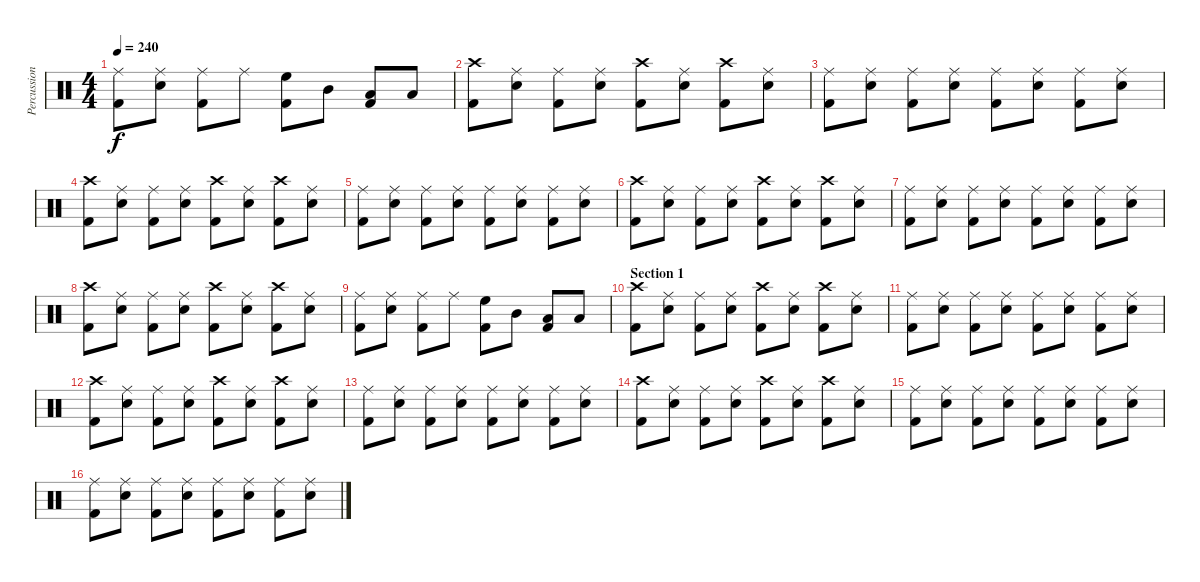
\track ("Percussion" "Percussion") {instrument percussion}
\staff {score}
\articulation defaults
\ts (4 4)
\tempo 240
\clef neutral
\ks c
("Kick (hit) 2" "Ride (middle)").8{dy f} ("Snare (hit) 2" "Ride (middle)").8 ("Kick (hit) 2" "Ride (middle)").8 "Ride (middle)".8 ("Kick (hit) 2" "High Floor Tom (hit)").8 "Mid Tom (hit)".8 ("Kick (hit) 2" "Low Tom (hit)").8 "Low Floor Tom (hit)".8 |
("Kick (hit) 2" "Crash high (hit)").8 ("Snare (hit) 2" "Ride (middle)").8 ("Kick (hit) 2" "Ride (middle)").8 ("Snare (hit) 2" "Ride (middle)").8 ("Kick (hit) 2" "Crash high (hit)").8 ("Snare (hit) 2" "Ride (middle)").8 ("Kick (hit) 2" "Crash high (hit)").8 ("Snare (hit) 2" "Ride (middle)").8 |
("Kick (hit) 2" "Ride (middle)").8 ("Snare (hit) 2" "Ride (middle)").8 ("Kick (hit) 2" "Ride (middle)").8 ("Snare (hit) 2" "Ride (middle)").8 ("Kick (hit) 2" "Ride (middle)").8 ("Snare (hit) 2" "Ride (middle)").8 ("Kick (hit) 2" "Ride (middle)").8 ("Snare (hit) 2" "Ride (middle)").8 |
("Kick (hit) 2" "Crash high (hit)").8 ("Snare (hit) 2" "Ride (middle)").8 ("Kick (hit) 2" "Ride (middle)").8 ("Snare (hit) 2" "Ride (middle)").8 ("Kick (hit) 2" "Crash high (hit)").8 ("Snare (hit) 2" "Ride (middle)").8 ("Kick (hit) 2" "Crash high (hit)").8 ("Snare (hit) 2" "Ride (middle)").8 |
("Kick (hit) 2" "Ride (middle)").8 ("Snare (hit) 2" "Ride (middle)").8 ("Kick (hit) 2" "Ride (middle)").8 ("Snare (hit) 2" "Ride (middle)").8 ("Kick (hit) 2" "Ride (middle)").8 ("Snare (hit) 2" "Ride (middle)").8 ("Kick (hit) 2" "Ride (middle)").8 ("Snare (hit) 2" "Ride (middle)").8 |
("Kick (hit) 2" "Crash high (hit)").8 ("Snare (hit) 2" "Ride (middle)").8 ("Kick (hit) 2" "Ride (middle)").8 ("Snare (hit) 2" "Ride (middle)").8 ("Kick (hit) 2" "Crash high (hit)").8 ("Snare (hit) 2" "Ride (middle)").8 ("Kick (hit) 2" "Crash high (hit)").8 ("Snare (hit) 2" "Ride (middle)").8 |
("Kick (hit) 2" "Ride (middle)").8 ("Snare (hit) 2" "Ride (middle)").8 ("Kick (hit) 2" "Ride (middle)").8 ("Snare (hit) 2" "Ride (middle)").8 ("Kick (hit) 2" "Ride (middle)").8 ("Snare (hit) 2" "Ride (middle)").8 ("Kick (hit) 2" "Ride (middle)").8 ("Snare (hit) 2" "Ride (middle)").8 |
("Kick (hit) 2" "Crash high (hit)").8 ("Snare (hit) 2" "Ride (middle)").8 ("Kick (hit) 2" "Ride (middle)").8 ("Snare (hit) 2" "Ride (middle)").8 ("Kick (hit) 2" "Crash high (hit)").8 ("Snare (hit) 2" "Ride (middle)").8 ("Kick (hit) 2" "Crash high (hit)").8 ("Snare (hit) 2" "Ride (middle)").8 |
("Kick (hit) 2" "Ride (middle)").8 ("Snare (hit) 2" "Ride (middle)").8 ("Kick (hit) 2" "Ride (middle)").8 "Ride (middle)".8 ("Kick (hit) 2" "High Floor Tom (hit)").8 "Mid Tom (hit)".8 ("Kick (hit) 2" "Low Tom (hit)").8 "Low Floor Tom (hit)".8 |
\section ("" "Section 1")
("Kick (hit) 2" "Crash high (hit)").8 ("Snare (hit) 2" "Ride (middle)").8 ("Kick (hit) 2" "Ride (middle)").8 ("Snare (hit) 2" "Ride (middle)").8 ("Kick (hit) 2" "Crash high (hit)").8 ("Snare (hit) 2" "Ride (middle)").8 ("Kick (hit) 2" "Crash high (hit)").8 ("Snare (hit) 2" "Ride (middle)").8 |
("Kick (hit) 2" "Ride (middle)").8 ("Snare (hit) 2" "Ride (middle)").8 ("Kick (hit) 2" "Ride (middle)").8 ("Snare (hit) 2" "Ride (middle)").8 ("Kick (hit) 2" "Ride (middle)").8 ("Snare (hit) 2" "Ride (middle)").8 ("Kick (hit) 2" "Ride (middle)").8 ("Snare (hit) 2" "Ride (middle)").8 |
("Kick (hit) 2" "Crash high (hit)").8 ("Snare (hit) 2" "Ride (middle)").8 ("Kick (hit) 2" "Ride (middle)").8 ("Snare (hit) 2" "Ride (middle)").8 ("Kick (hit) 2" "Crash high (hit)").8 ("Snare (hit) 2" "Ride (middle)").8 ("Kick (hit) 2" "Crash high (hit)").8 ("Snare (hit) 2" "Ride (middle)").8 |
("Kick (hit) 2" "Ride (middle)").8 ("Snare (hit) 2" "Ride (middle)").8 ("Kick (hit) 2" "Ride (middle)").8 ("Snare (hit) 2" "Ride (middle)").8 ("Kick (hit) 2" "Ride (middle)").8 ("Snare (hit) 2" "Ride (middle)").8 ("Kick (hit) 2" "Ride (middle)").8 ("Snare (hit) 2" "Ride (middle)").8 |
("Kick (hit) 2" "Crash high (hit)").8 ("Snare (hit) 2" "Ride (middle)").8 ("Kick (hit) 2" "Ride (middle)").8 ("Snare (hit) 2" "Ride (middle)").8 ("Kick (hit) 2" "Crash high (hit)").8 ("Snare (hit) 2" "Ride (middle)").8 ("Kick (hit) 2" "Crash high (hit)").8 ("Snare (hit) 2" "Ride (middle)").8 |
("Kick (hit) 2" "Ride (middle)").8 ("Snare (hit) 2" "Ride (middle)").8 ("Kick (hit) 2" "Ride (middle)").8 ("Snare (hit) 2" "Ride (middle)").8 ("Kick (hit) 2" "Ride (middle)").8 ("Snare (hit) 2" "Ride (middle)").8 ("Kick (hit) 2" "Ride (middle)").8 ("Snare (hit) 2" "Ride (middle)").8 |
("Kick (hit) 2" "Ride (middle)").8 ("Snare (hit) 2" "Ride (middle)").8 ("Kick (hit) 2" "Ride (middle)").8 ("Snare (hit) 2" "Ride (middle)").8 ("Kick (hit) 2" "Ride (middle)").8 ("Snare (hit) 2" "Ride (middle)").8 ("Kick (hit) 2" "Ride (middle)").8 ("Snare (hit) 2" "Ride (middle)").8
